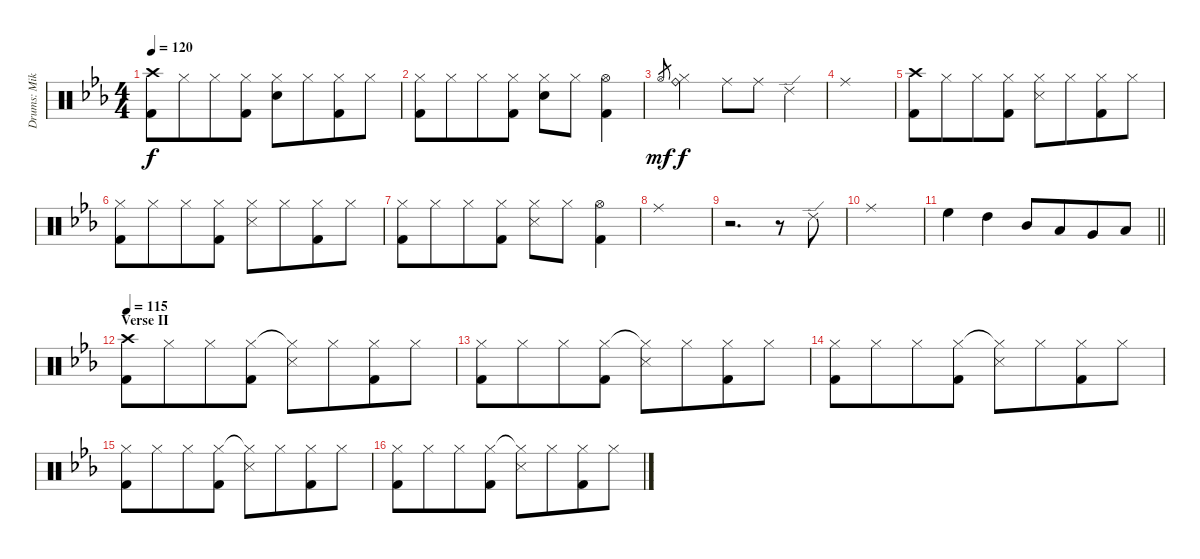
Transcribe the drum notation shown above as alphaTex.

\track ("Drums: Mike" "Drums: Mik") {instrument percussion}
\staff {score}
\articulation defaults
\ts (4 4)
\tempo 120
\clef neutral
\ks eb
("Crash high (hit)" "Kick (hit) 2").8{dy f} "Hi-Hat (closed)".8{beam merge} "Hi-Hat (closed)".8 ("Hi-Hat (closed)" "Kick (hit) 2").8 ("Hi-Hat (closed)" "Electric Snare (hit)").8 "Hi-Hat (closed)".8{beam merge} ("Hi-Hat (closed)" "Kick (hit) 2").8 "Hi-Hat (closed)".8 |
("Hi-Hat (closed)" "Kick (hit) 2").8 "Hi-Hat (closed)".8{beam merge} "Hi-Hat (closed)".8 ("Hi-Hat (closed)" "Kick (hit) 2").8 ("Hi-Hat (closed)" "Electric Snare (hit)").8 "Hi-Hat (closed)".8{beam merge} ("Hi-Hat (open)" "Kick (hit) 2").4 |
"Hi-Hat (open)".8{gr dy mf} ("Ride (bell)" "Hi-Hat (closed)").2{dy f} "Ride (middle)".8 "Ride (middle)".8 "Ride (edge) 2".4 |
"Ride (middle)".1 |
("Crash high (hit)" "Kick (hit) 2").8 "Hi-Hat (closed)".8{beam merge} "Hi-Hat (closed)".8 ("Hi-Hat (closed)" "Kick (hit) 2").8 ("Hi-Hat (closed)" "Snare (side stick) 3").8 "Hi-Hat (closed)".8{beam merge} ("Hi-Hat (closed)" "Kick (hit) 2").8 "Hi-Hat (closed)".8 |
("Hi-Hat (closed)" "Kick (hit) 2").8 "Hi-Hat (closed)".8{beam merge} "Hi-Hat (closed)".8 ("Hi-Hat (closed)" "Kick (hit) 2").8 ("Hi-Hat (closed)" "Snare (side stick) 3").8 "Hi-Hat (closed)".8{beam merge} ("Hi-Hat (closed)" "Kick (hit) 2").8 "Hi-Hat (closed)".8 |
("Hi-Hat (closed)" "Kick (hit) 2").8 "Hi-Hat (closed)".8{beam merge} "Hi-Hat (closed)".8 ("Hi-Hat (closed)" "Kick (hit) 2").8 ("Hi-Hat (closed)" "Snare (side stick) 3").8 "Hi-Hat (closed)".8{beam merge} ("Hi-Hat (open)" "Kick (hit) 2").4 |
"Ride (middle)".1 |
r.2{d} r.8 "Ride (edge) 2".8 |
"Ride (middle)".1 |
\barLineRight lightlight "High Floor Tom (hit)".4 "High Tom (hit)".4 "Mid Tom (hit)".8 "Low Tom (hit)".8{beam merge} "Very Low Tom (hit)".8 "Low Floor Tom (hit)".8
|
\section ("" "Verse II")
\tempo 115
("Crash high (hit)" "Kick (hit) 2").8 "Hi-Hat (closed)".8{beam merge} "Hi-Hat (closed)".8 ("Hi-Hat (closed)" "Kick (hit) 2").8 ("Hi-Hat (closed)"{t} "Snare (side stick) 3").8 "Hi-Hat (closed)".8{beam merge} ("Hi-Hat (closed)" "Kick (hit) 2").8 "Hi-Hat (closed)".8 |
("Hi-Hat (closed)" "Kick (hit) 2").8 "Hi-Hat (closed)".8{beam merge} "Hi-Hat (closed)".8 ("Hi-Hat (closed)" "Kick (hit) 2").8 ("Hi-Hat (closed)"{t} "Snare (side stick) 3").8 "Hi-Hat (closed)".8{beam merge} ("Hi-Hat (closed)" "Kick (hit) 2").8 "Hi-Hat (closed)".8 |
("Hi-Hat (closed)" "Kick (hit) 2").8 "Hi-Hat (closed)".8{beam merge} "Hi-Hat (closed)".8 ("Hi-Hat (closed)" "Kick (hit) 2").8 ("Hi-Hat (closed)"{t} "Snare (side stick) 3").8 "Hi-Hat (closed)".8{beam merge} ("Hi-Hat (closed)" "Kick (hit) 2").8 "Hi-Hat (closed)".8 |
("Hi-Hat (closed)" "Kick (hit) 2").8 "Hi-Hat (closed)".8{beam merge} "Hi-Hat (closed)".8 ("Hi-Hat (closed)" "Kick (hit) 2").8 ("Hi-Hat (closed)"{t} "Snare (side stick) 3").8 "Hi-Hat (closed)".8{beam merge} ("Hi-Hat (closed)" "Kick (hit) 2").8 "Hi-Hat (closed)".8 |
("Hi-Hat (closed)" "Kick (hit) 2").8 "Hi-Hat (closed)".8{beam merge} "Hi-Hat (closed)".8 ("Hi-Hat (closed)" "Kick (hit) 2").8 ("Hi-Hat (closed)"{t} "Snare (side stick) 3").8 "Hi-Hat (closed)".8{beam merge} ("Hi-Hat (closed)" "Kick (hit) 2").8 "Hi-Hat (closed)".8
